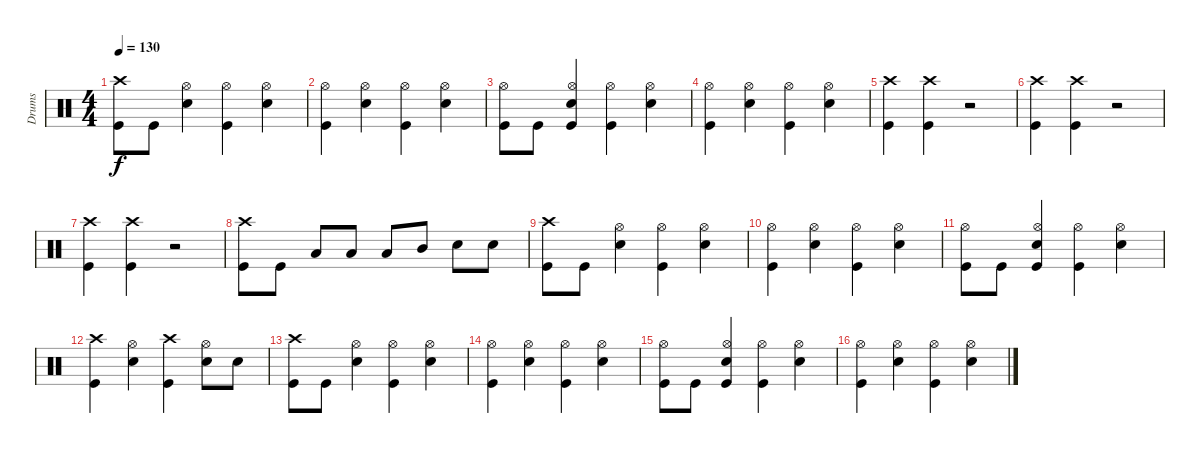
\track ("Drums" "Drums") {instrument percussion}
\staff {score}
\articulation defaults
\ts (4 4)
\tempo 130
\clef neutral
\ks c
("Crash high (hit)" "Kick (hit)").8{dy f} "Kick (hit)".8 ("Hi-Hat (open)" "Snare (hit) 2").4 ("Hi-Hat (open)" "Kick (hit)").4 ("Hi-Hat (open)" "Snare (hit) 2").4 |
("Hi-Hat (open)" "Kick (hit)").4 ("Hi-Hat (open)" "Snare (hit) 2").4 ("Hi-Hat (open)" "Kick (hit)").4 ("Hi-Hat (open)" "Snare (hit) 2").4 |
("Hi-Hat (open)" "Kick (hit)").8 "Kick (hit)".8 ("Hi-Hat (open)" "Snare (hit) 2" "Kick (hit)").4 ("Hi-Hat (open)" "Kick (hit)").4 ("Hi-Hat (open)" "Snare (hit) 2").4 |
("Hi-Hat (open)" "Kick (hit)").4 ("Hi-Hat (open)" "Snare (hit) 2").4 ("Hi-Hat (open)" "Kick (hit)").4 ("Hi-Hat (open)" "Snare (hit) 2").4 |
("Crash high (hit)" "Kick (hit)").4 ("Crash high (hit)" "Kick (hit)").4 r.2 |
("Crash high (hit)" "Kick (hit)").4 ("Crash high (hit)" "Kick (hit)").4 r.2 |
("Crash high (hit)" "Kick (hit)").4 ("Crash high (hit)" "Kick (hit)").4 r.2 |
("Crash high (hit)" "Kick (hit)").8 "Kick (hit)".8 "Low Floor Tom (hit)".8 "Low Floor Tom (hit)".8 "Low Tom (hit)".8 "Mid Tom (hit)".8 "Snare (hit) 2".8 "Snare (hit) 2".8 |
("Crash high (hit)" "Kick (hit)").8 "Kick (hit)".8 ("Hi-Hat (open)" "Snare (hit) 2").4 ("Hi-Hat (open)" "Kick (hit)").4 ("Hi-Hat (open)" "Snare (hit) 2").4 |
("Hi-Hat (open)" "Kick (hit)").4 ("Hi-Hat (open)" "Snare (hit) 2").4 ("Hi-Hat (open)" "Kick (hit)").4 ("Hi-Hat (open)" "Snare (hit) 2").4 |
("Hi-Hat (open)" "Kick (hit)").8 "Kick (hit)".8 ("Hi-Hat (open)" "Snare (hit) 2" "Kick (hit)").4 ("Hi-Hat (open)" "Kick (hit)").4 ("Hi-Hat (open)" "Snare (hit) 2").4 |
("Crash high (hit)" "Kick (hit)").4 ("Hi-Hat (open)" "Snare (hit) 2").4 ("Crash high (hit)" "Kick (hit)").4 ("Hi-Hat (open)" "Snare (hit) 2").8 "Snare (hit) 2".8 |
("Crash high (hit)" "Kick (hit)").8 "Kick (hit)".8 ("Hi-Hat (open)" "Snare (hit) 2").4 ("Hi-Hat (open)" "Kick (hit)").4 ("Hi-Hat (open)" "Snare (hit) 2").4 |
("Hi-Hat (open)" "Kick (hit)").4 ("Hi-Hat (open)" "Snare (hit) 2").4 ("Hi-Hat (open)" "Kick (hit)").4 ("Hi-Hat (open)" "Snare (hit) 2").4 |
("Hi-Hat (open)" "Kick (hit)").8 "Kick (hit)".8 ("Hi-Hat (open)" "Snare (hit) 2" "Kick (hit)").4 ("Hi-Hat (open)" "Kick (hit)").4 ("Hi-Hat (open)" "Snare (hit) 2").4 |
("Hi-Hat (open)" "Kick (hit)").4 ("Hi-Hat (open)" "Snare (hit) 2").4 ("Hi-Hat (open)" "Kick (hit)").4 ("Hi-Hat (open)" "Snare (hit) 2").4
